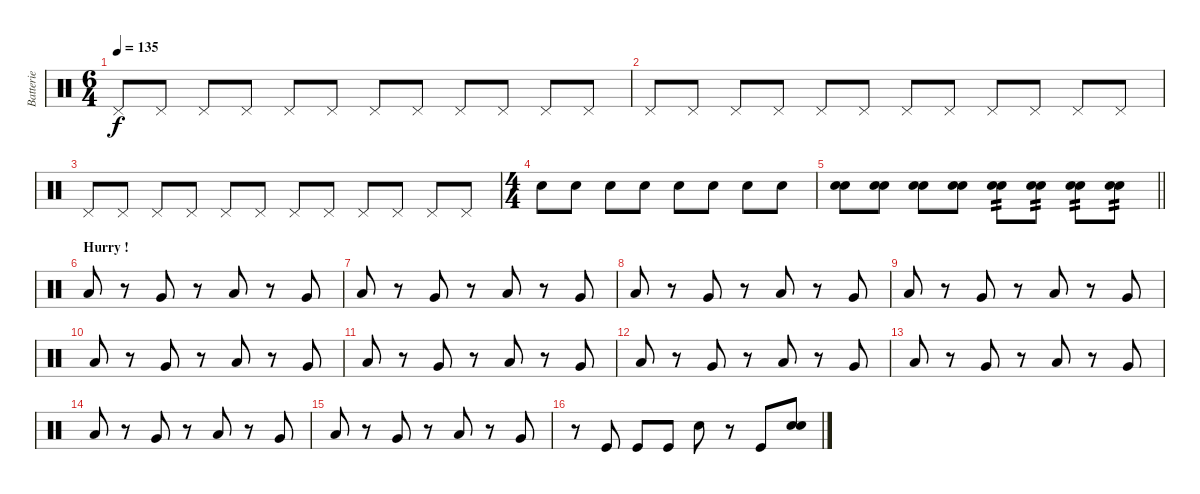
\track ("Batterie" "Batterie") {instrument percussion}
\staff {score}
\articulation defaults
\ts (6 4)
\tempo 135
\clef neutral
\ks c "Pedal Hi-Hat (hit)".8{dy f} "Pedal Hi-Hat (hit)".8 "Pedal Hi-Hat (hit)".8 "Pedal Hi-Hat (hit)".8 "Pedal Hi-Hat (hit)".8 "Pedal Hi-Hat (hit)".8 "Pedal Hi-Hat (hit)".8 "Pedal Hi-Hat (hit)".8 "Pedal Hi-Hat (hit)".8 "Pedal Hi-Hat (hit)".8 "Pedal Hi-Hat (hit)".8 "Pedal Hi-Hat (hit)".8
|
"Pedal Hi-Hat (hit)".8 "Pedal Hi-Hat (hit)".8 "Pedal Hi-Hat (hit)".8 "Pedal Hi-Hat (hit)".8 "Pedal Hi-Hat (hit)".8 "Pedal Hi-Hat (hit)".8 "Pedal Hi-Hat (hit)".8 "Pedal Hi-Hat (hit)".8 "Pedal Hi-Hat (hit)".8 "Pedal Hi-Hat (hit)".8 "Pedal Hi-Hat (hit)".8 "Pedal Hi-Hat (hit)".8 |
"Pedal Hi-Hat (hit)".8 "Pedal Hi-Hat (hit)".8 "Pedal Hi-Hat (hit)".8 "Pedal Hi-Hat (hit)".8 "Pedal Hi-Hat (hit)".8 "Pedal Hi-Hat (hit)".8 "Pedal Hi-Hat (hit)".8 "Pedal Hi-Hat (hit)".8 "Pedal Hi-Hat (hit)".8 "Pedal Hi-Hat (hit)".8 "Pedal Hi-Hat (hit)".8 "Pedal Hi-Hat (hit)".8 |
\ts (4 4)
"Electric Snare (hit)".8 "Electric Snare (hit)".8 "Electric Snare (hit)".8 "Electric Snare (hit)".8 "Electric Snare (hit)".8 "Electric Snare (hit)".8 "Electric Snare (hit)".8 "Electric Snare (hit)".8 |
\barLineRight lightlight
("Snare (hit) 2" "Electric Snare (hit)").8 ("Snare (hit) 2" "Electric Snare (hit)").8 ("Snare (hit) 2" "Electric Snare (hit)").8 ("Snare (hit) 2" "Electric Snare (hit)").8 ("Snare (hit) 2" "Electric Snare (hit)").8{tp 2} ("Snare (hit) 2" "Electric Snare (hit)").8{tp 2} ("Snare (hit) 2" "Electric Snare (hit)").8{tp 2} ("Snare (hit) 2" "Electric Snare (hit)").8{tp 2} |
\section ("" "Hurry !")
"Low Tom (hit)".8 r.8 "Very Low Tom (hit)".8 r.8 "Low Tom (hit)".8 r.8 "Very Low Tom (hit)".8 |
"Low Tom (hit)".8 r.8 "Very Low Tom (hit)".8 r.8 "Low Tom (hit)".8 r.8 "Very Low Tom (hit)".8 |
"Low Tom (hit)".8 r.8 "Very Low Tom (hit)".8 r.8 "Low Tom (hit)".8 r.8 "Very Low Tom (hit)".8 |
"Low Tom (hit)".8 r.8 "Very Low Tom (hit)".8 r.8 "Low Tom (hit)".8 r.8 "Very Low Tom (hit)".8 |
"Low Tom (hit)".8 r.8 "Very Low Tom (hit)".8 r.8 "Low Tom (hit)".8 r.8 "Very Low Tom (hit)".8 |
"Low Tom (hit)".8 r.8 "Very Low Tom (hit)".8 r.8 "Low Tom (hit)".8 r.8 "Very Low Tom (hit)".8 |
"Low Tom (hit)".8 r.8 "Very Low Tom (hit)".8 r.8 "Low Tom (hit)".8 r.8 "Very Low Tom (hit)".8 |
"Low Tom (hit)".8 r.8 "Very Low Tom (hit)".8 r.8 "Low Tom (hit)".8 r.8 "Very Low Tom (hit)".8 |
"Low Tom (hit)".8 r.8 "Very Low Tom (hit)".8 r.8 "Low Tom (hit)".8 r.8 "Very Low Tom (hit)".8 |
"Low Tom (hit)".8 r.8 "Very Low Tom (hit)".8 r.8 "Low Tom (hit)".8 r.8 "Very Low Tom (hit)".8 |
r.8 "Kick (hit)".8 "Kick (hit)".8 "Kick (hit)".8 "Snare (hit) 2".8 r.8 "Kick (hit)".8 ("Snare (hit) 2" "Electric Snare (hit)").8
